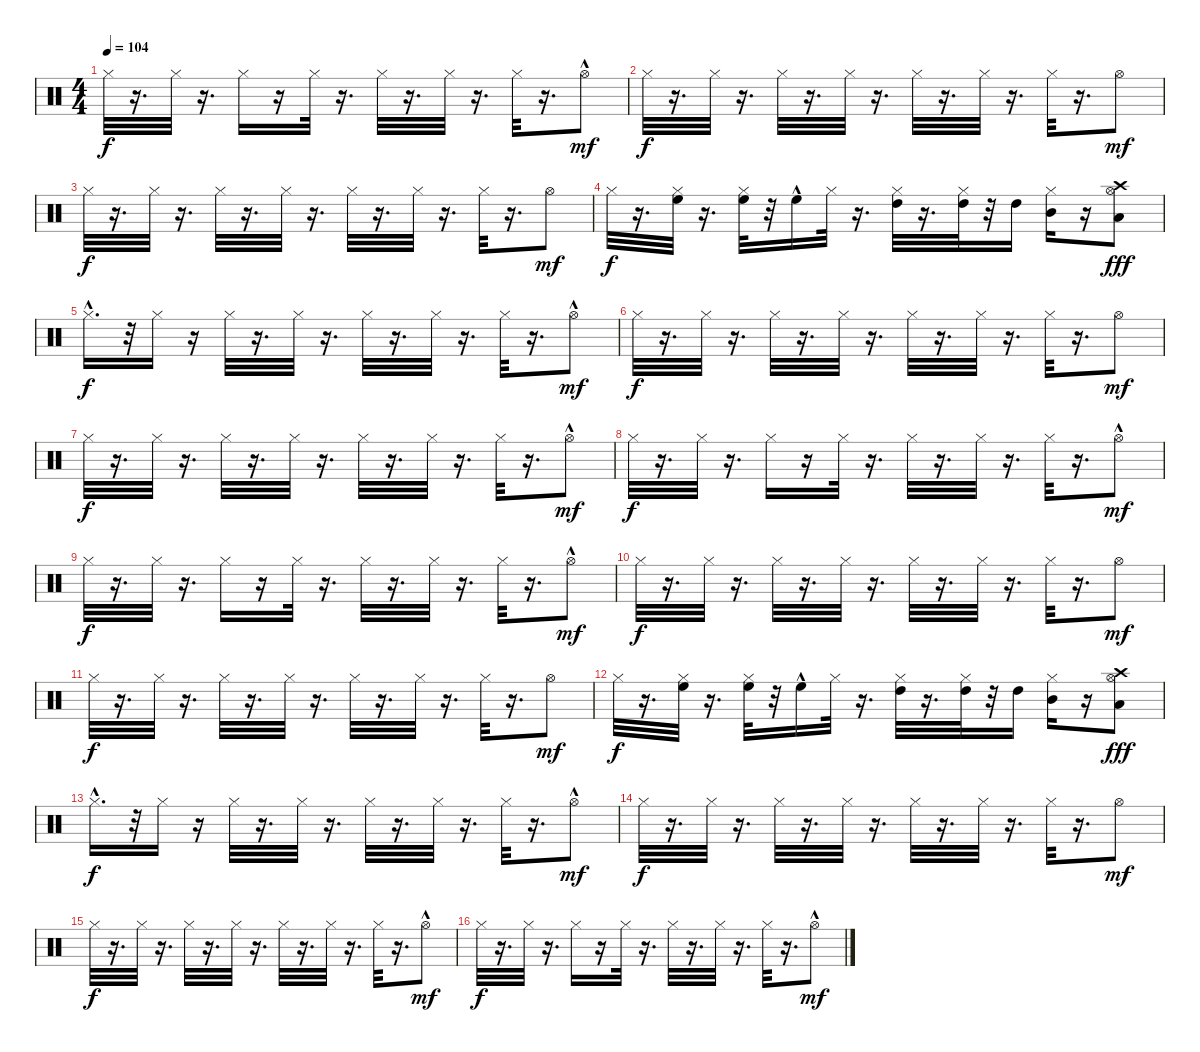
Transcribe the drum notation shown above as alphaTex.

\track "" {instrument percussion}
\staff {score}
\articulation defaults
\ts (4 4)
\tempo 104
\clef neutral
\ks c "Hi-Hat (closed)".32{dy f}
r.16{d} "Hi-Hat (closed)".32 r.16{d} "Hi-Hat (closed)".16 r.16 "Hi-Hat (closed)".32 r.16{d} "Hi-Hat (closed)".32 r.16{d} "Hi-Hat (closed)".32 r.16{d} "Hi-Hat (closed)".32 r.16{d} "Hi-Hat (open)"{hac}.8{dy mf} |
"Hi-Hat (closed)".32{dy f} r.16{d} "Hi-Hat (closed)".32 r.16{d} "Hi-Hat (closed)".32 r.16{d} "Hi-Hat (closed)".32 r.16{d} "Hi-Hat (closed)".32 r.16{d} "Hi-Hat (closed)".32 r.16{d} "Hi-Hat (closed)".32 r.16{d} "Hi-Hat (open)".8{dy mf} |
"Hi-Hat (closed)".32{dy f} r.16{d} "Hi-Hat (closed)".32 r.16{d} "Hi-Hat (closed)".32 r.16{d} "Hi-Hat (closed)".32 r.16{d} "Hi-Hat (closed)".32 r.16{d} "Hi-Hat (closed)".32 r.16{d} "Hi-Hat (closed)".32 r.16{d} "Hi-Hat (open)".8{dy mf} |
"Hi-Hat (closed)".32{dy f} r.16{d} ("Hi-Hat (closed)" "High Floor Tom (hit)").32 r.16{d} ("Hi-Hat (closed)" "High Floor Tom (hit)").32 r.32 "High Floor Tom (hit)"{hac}.16 "Hi-Hat (closed)".32 r.16{d} ("Hi-Hat (closed)" "High Tom (hit)").32 r.16{d} ("Hi-Hat (closed)" "High Tom (hit)").32 r.32 "High Tom (hit)".16 ("Hi-Hat (closed)" "Mid Tom (hit)").16 r.16 ("Hi-Hat (open)" "Low Tom (hit)" "Crash high (hit)").8{dy fff} |
"Hi-Hat (closed)"{hac}.16{d dy f} r.32 "Hi-Hat (closed)".16 r.16 "Hi-Hat (closed)".32 r.16{d} "Hi-Hat (closed)".32 r.16{d} "Hi-Hat (closed)".32 r.16{d} "Hi-Hat (closed)".32 r.16{d} "Hi-Hat (closed)".32 r.16{d} "Hi-Hat (open)"{hac}.8{dy mf} |
"Hi-Hat (closed)".32{dy f} r.16{d} "Hi-Hat (closed)".32 r.16{d} "Hi-Hat (closed)".32 r.16{d} "Hi-Hat (closed)".32 r.16{d} "Hi-Hat (closed)".32 r.16{d} "Hi-Hat (closed)".32 r.16{d} "Hi-Hat (closed)".32 r.16{d} "Hi-Hat (open)".8{dy mf} |
"Hi-Hat (closed)".32{dy f} r.16{d} "Hi-Hat (closed)".32 r.16{d} "Hi-Hat (closed)".32 r.16{d} "Hi-Hat (closed)".32 r.16{d} "Hi-Hat (closed)".32 r.16{d} "Hi-Hat (closed)".32 r.16{d} "Hi-Hat (closed)".32 r.16{d} "Hi-Hat (open)"{hac}.8{dy mf} |
"Hi-Hat (closed)".32{dy f} r.16{d} "Hi-Hat (closed)".32 r.16{d} "Hi-Hat (closed)".16 r.16 "Hi-Hat (closed)".32 r.16{d} "Hi-Hat (closed)".32 r.16{d} "Hi-Hat (closed)".32 r.16{d} "Hi-Hat (closed)".32 r.16{d} "Hi-Hat (open)"{hac}.8{dy mf} |
"Hi-Hat (closed)".32{dy f} r.16{d} "Hi-Hat (closed)".32 r.16{d} "Hi-Hat (closed)".16 r.16 "Hi-Hat (closed)".32 r.16{d} "Hi-Hat (closed)".32 r.16{d} "Hi-Hat (closed)".32 r.16{d} "Hi-Hat (closed)".32 r.16{d} "Hi-Hat (open)"{hac}.8{dy mf} |
"Hi-Hat (closed)".32{dy f} r.16{d} "Hi-Hat (closed)".32 r.16{d} "Hi-Hat (closed)".32 r.16{d} "Hi-Hat (closed)".32 r.16{d} "Hi-Hat (closed)".32 r.16{d} "Hi-Hat (closed)".32 r.16{d} "Hi-Hat (closed)".32 r.16{d} "Hi-Hat (open)".8{dy mf} |
"Hi-Hat (closed)".32{dy f} r.16{d} "Hi-Hat (closed)".32 r.16{d} "Hi-Hat (closed)".32 r.16{d} "Hi-Hat (closed)".32 r.16{d} "Hi-Hat (closed)".32 r.16{d} "Hi-Hat (closed)".32 r.16{d} "Hi-Hat (closed)".32 r.16{d} "Hi-Hat (open)".8{dy mf} |
"Hi-Hat (closed)".32{dy f} r.16{d} ("High Floor Tom (hit)" "Hi-Hat (closed)").32 r.16{d} ("High Floor Tom (hit)" "Hi-Hat (closed)").32 r.32 "High Floor Tom (hit)"{hac}.16 "Hi-Hat (closed)".32 r.16{d} ("High Tom (hit)" "Hi-Hat (closed)").32 r.16{d} ("High Tom (hit)" "Hi-Hat (closed)").32 r.32 "High Tom (hit)".16 ("Mid Tom (hit)" "Hi-Hat (closed)").16 r.16 ("Low Tom (hit)" "Crash high (hit)" "Hi-Hat (open)").8{dy fff} |
"Hi-Hat (closed)"{hac}.16{d dy f} r.32 "Hi-Hat (closed)".16 r.16 "Hi-Hat (closed)".32 r.16{d} "Hi-Hat (closed)".32 r.16{d} "Hi-Hat (closed)".32 r.16{d} "Hi-Hat (closed)".32 r.16{d} "Hi-Hat (closed)".32 r.16{d} "Hi-Hat (open)"{hac}.8{dy mf} |
"Hi-Hat (closed)".32{dy f} r.16{d} "Hi-Hat (closed)".32 r.16{d} "Hi-Hat (closed)".32 r.16{d} "Hi-Hat (closed)".32 r.16{d} "Hi-Hat (closed)".32 r.16{d} "Hi-Hat (closed)".32 r.16{d} "Hi-Hat (closed)".32 r.16{d} "Hi-Hat (open)".8{dy mf} |
"Hi-Hat (closed)".32{dy f} r.16{d} "Hi-Hat (closed)".32 r.16{d} "Hi-Hat (closed)".32 r.16{d} "Hi-Hat (closed)".32 r.16{d} "Hi-Hat (closed)".32 r.16{d} "Hi-Hat (closed)".32 r.16{d} "Hi-Hat (closed)".32 r.16{d} "Hi-Hat (open)"{hac}.8{dy mf} |
"Hi-Hat (closed)".32{dy f} r.16{d} "Hi-Hat (closed)".32 r.16{d} "Hi-Hat (closed)".16 r.16 "Hi-Hat (closed)".32 r.16{d} "Hi-Hat (closed)".32 r.16{d} "Hi-Hat (closed)".32 r.16{d} "Hi-Hat (closed)".32 r.16{d} "Hi-Hat (open)"{hac}.8{dy mf}
